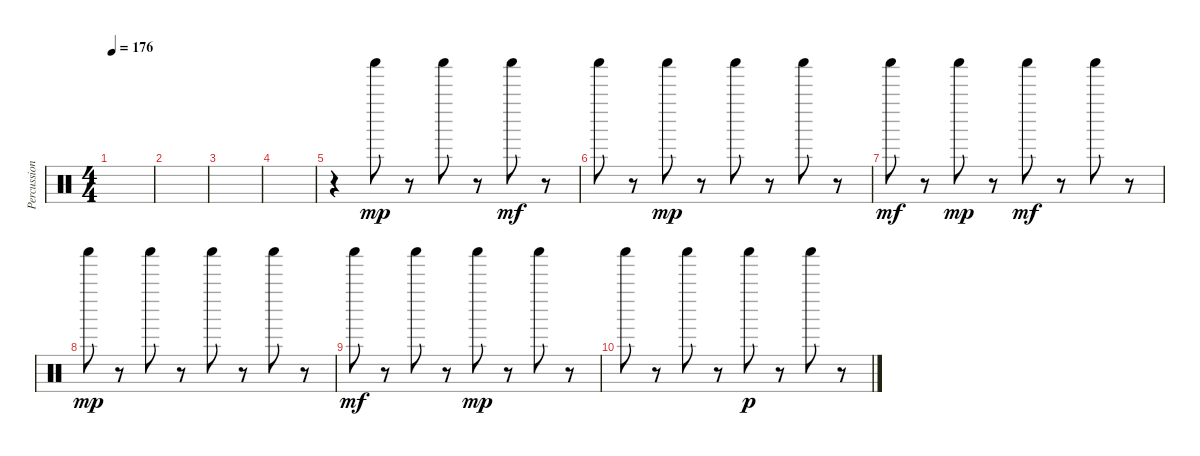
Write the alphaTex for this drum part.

\track ("Percussion" "Percussion") {instrument percussion}
\staff {score}
\articulation defaults
\ts (4 4)
\tempo 176
\clef neutral
\ks c
|
|
|
|
r.4 "Shaker (hit)".8{dy mp volume 12} r.8 "Shaker (hit)".8 r.8 "Shaker (hit)".8{dy mf} r.8 |
"Shaker (hit)".8 r.8 "Shaker (hit)".8{dy mp} r.8 "Shaker (hit)".8 r.8 "Shaker (hit)".8 r.8 |
"Shaker (hit)".8{dy mf} r.8 "Shaker (hit)".8{dy mp} r.8 "Shaker (hit)".8{dy mf} r.8 "Shaker (hit)".8 r.8 |
"Shaker (hit)".8{dy mp} r.8 "Shaker (hit)".8 r.8 "Shaker (hit)".8 r.8 "Shaker (hit)".8 r.8 |
"Shaker (hit)".8{dy mf} r.8 "Shaker (hit)".8 r.8 "Shaker (hit)".8{dy mp} r.8 "Shaker (hit)".8{volume 11} r.8 |
"Shaker (hit)".8{volume 9} r.8 "Shaker (hit)".8{volume 6} r.8 "Shaker (hit)".8{dy p volume 4} r.8 "Shaker (hit)".8{volume 2} r.8
